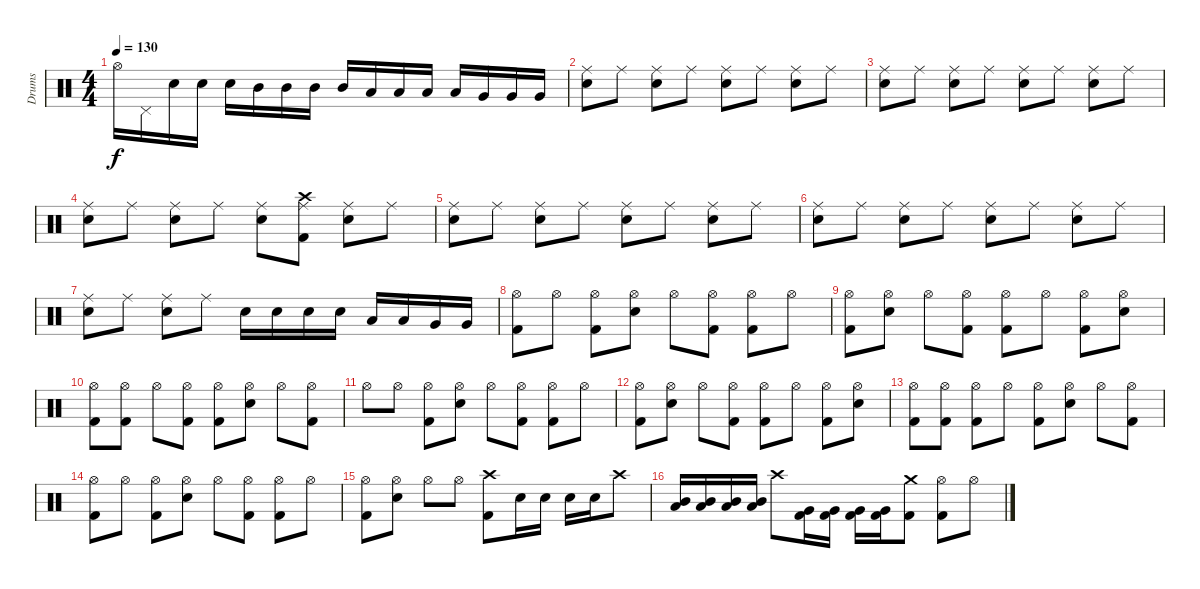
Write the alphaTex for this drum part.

\track ("Drums" "Drums") {instrument percussion}
\staff {score}
\articulation defaults
\ts (4 4)
\tempo 130
\clef neutral
\ks c "Hi-Hat (open)".16{dy f} "Pedal Hi-Hat (hit)".16 "Snare (hit) 2".16 "Snare (hit) 2".16 "Snare (hit) 2".16 "Mid Tom (hit)".16 "Mid Tom (hit)".16 "Mid Tom (hit)".16 "Mid Tom (hit)".16 "Low Tom (hit)".16 "Low Tom (hit)".16 "Low Tom (hit)".16 "Low Tom (hit)".16 "Very Low Tom (hit)".16 "Very Low Tom (hit)".16 "Very Low Tom (hit)".16
|
("Ride (middle)" "Snare (hit) 2").8 "Ride (middle)".8 ("Ride (middle)" "Snare (hit) 2").8 "Ride (middle)".8 ("Ride (middle)" "Snare (hit) 2").8 "Ride (middle)".8 ("Ride (middle)" "Snare (hit) 2").8 "Ride (middle)".8 |
("Ride (middle)" "Snare (hit) 2").8 "Ride (middle)".8 ("Ride (middle)" "Snare (hit) 2").8 "Ride (middle)".8 ("Ride (middle)" "Snare (hit) 2").8 "Ride (middle)".8 ("Ride (middle)" "Snare (hit) 2").8 "Ride (middle)".8 |
("Ride (middle)" "Snare (hit) 2").8 "Ride (middle)".8 ("Ride (middle)" "Snare (hit) 2").8 "Ride (middle)".8 ("Ride (middle)" "Snare (hit) 2").8 ("Crash high (hit)" "Ride (middle)" "Kick (hit) 2").8 ("Ride (middle)" "Snare (hit) 2").8 "Ride (middle)".8 |
("Ride (middle)" "Snare (hit) 2").8 "Ride (middle)".8 ("Ride (middle)" "Snare (hit) 2").8 "Ride (middle)".8 ("Ride (middle)" "Snare (hit) 2").8 "Ride (middle)".8 ("Ride (middle)" "Snare (hit) 2").8 "Ride (middle)".8 |
("Ride (middle)" "Snare (hit) 2").8 "Ride (middle)".8 ("Ride (middle)" "Snare (hit) 2").8 "Ride (middle)".8 ("Ride (middle)" "Snare (hit) 2").8 "Ride (middle)".8 ("Ride (middle)" "Snare (hit) 2").8 "Ride (middle)".8 |
("Ride (middle)" "Snare (hit) 2").8 "Ride (middle)".8 ("Ride (middle)" "Snare (hit) 2").8 "Ride (middle)".8 "Snare (hit) 2".16 "Snare (hit) 2".16 "Snare (hit) 2".16 "Snare (hit) 2".16 "Low Tom (hit)".16 "Low Tom (hit)".16 "Very Low Tom (hit)".16 "Very Low Tom (hit)".16 |
("Hi-Hat (open)" "Kick (hit) 2").8 "Hi-Hat (open)".8 ("Hi-Hat (open)" "Kick (hit) 2").8 ("Hi-Hat (open)" "Snare (hit) 2").8 "Hi-Hat (open)".8 ("Hi-Hat (open)" "Kick (hit) 2").8 ("Hi-Hat (open)" "Kick (hit) 2").8 "Hi-Hat (open)".8 |
("Hi-Hat (open)" "Kick (hit) 2").8 ("Hi-Hat (open)" "Snare (hit) 2").8 "Hi-Hat (open)".8 ("Hi-Hat (open)" "Kick (hit) 2").8 ("Hi-Hat (open)" "Kick (hit) 2").8 "Hi-Hat (open)".8 ("Hi-Hat (open)" "Kick (hit) 2").8 ("Hi-Hat (open)" "Snare (hit) 2").8 |
("Hi-Hat (open)" "Kick (hit) 2").8 ("Hi-Hat (open)" "Kick (hit) 2").8 "Hi-Hat (open)".8 ("Hi-Hat (open)" "Kick (hit) 2").8 ("Hi-Hat (open)" "Kick (hit) 2").8 ("Hi-Hat (open)" "Snare (hit) 2").8 "Hi-Hat (open)".8 ("Hi-Hat (open)" "Kick (hit) 2").8 |
"Hi-Hat (open)".8 "Hi-Hat (open)".8 ("Hi-Hat (open)" "Kick (hit) 2").8 ("Hi-Hat (open)" "Snare (hit) 2").8 "Hi-Hat (open)".8 ("Hi-Hat (open)" "Kick (hit) 2").8 ("Hi-Hat (open)" "Kick (hit) 2").8 "Hi-Hat (open)".8 |
("Hi-Hat (open)" "Kick (hit) 2").8 ("Hi-Hat (open)" "Snare (hit) 2").8 "Hi-Hat (open)".8 ("Hi-Hat (open)" "Kick (hit) 2").8 ("Hi-Hat (open)" "Kick (hit) 2").8 "Hi-Hat (open)".8 ("Hi-Hat (open)" "Kick (hit) 2").8 ("Hi-Hat (open)" "Snare (hit) 2").8 |
("Hi-Hat (open)" "Kick (hit) 2").8 ("Hi-Hat (open)" "Kick (hit) 2").8 ("Hi-Hat (open)" "Kick (hit) 2").8 "Hi-Hat (open)".8 ("Hi-Hat (open)" "Kick (hit) 2").8 ("Hi-Hat (open)" "Snare (hit) 2").8 "Hi-Hat (open)".8 ("Hi-Hat (open)" "Kick (hit) 2").8 |
("Hi-Hat (open)" "Kick (hit) 2").8 "Hi-Hat (open)".8 ("Hi-Hat (open)" "Kick (hit) 2").8 ("Hi-Hat (open)" "Snare (hit) 2").8 "Hi-Hat (open)".8 ("Hi-Hat (open)" "Kick (hit) 2").8 ("Hi-Hat (open)" "Kick (hit) 2").8 "Hi-Hat (open)".8 |
("Hi-Hat (open)" "Kick (hit) 2").8 ("Hi-Hat (open)" "Snare (hit) 2").8 "Hi-Hat (open)".8 "Hi-Hat (open)".8 ("Crash high (hit)" "Kick (hit) 2").8 "Snare (hit) 2".16 "Snare (hit) 2".16 "Snare (hit) 2".16 "Snare (hit) 2".16 "Crash high (hit)".8 |
("Mid Tom (hit)" "Low Tom (hit)").16 ("Mid Tom (hit)" "Low Tom (hit)").16 ("Mid Tom (hit)" "Low Tom (hit)").16 ("Mid Tom (hit)" "Low Tom (hit)").16 "Crash high (hit)".8 ("Kick (hit) 2" "Very Low Tom (hit)").16 ("Kick (hit) 2" "Very Low Tom (hit)").16 ("Kick (hit) 2" "Very Low Tom (hit)").16 ("Kick (hit) 2" "Very Low Tom (hit)").16 ("Crash medium (hit)" "Kick (hit) 2").8 ("Hi-Hat (open)" "Kick (hit) 2").8 "Hi-Hat (open)".8
